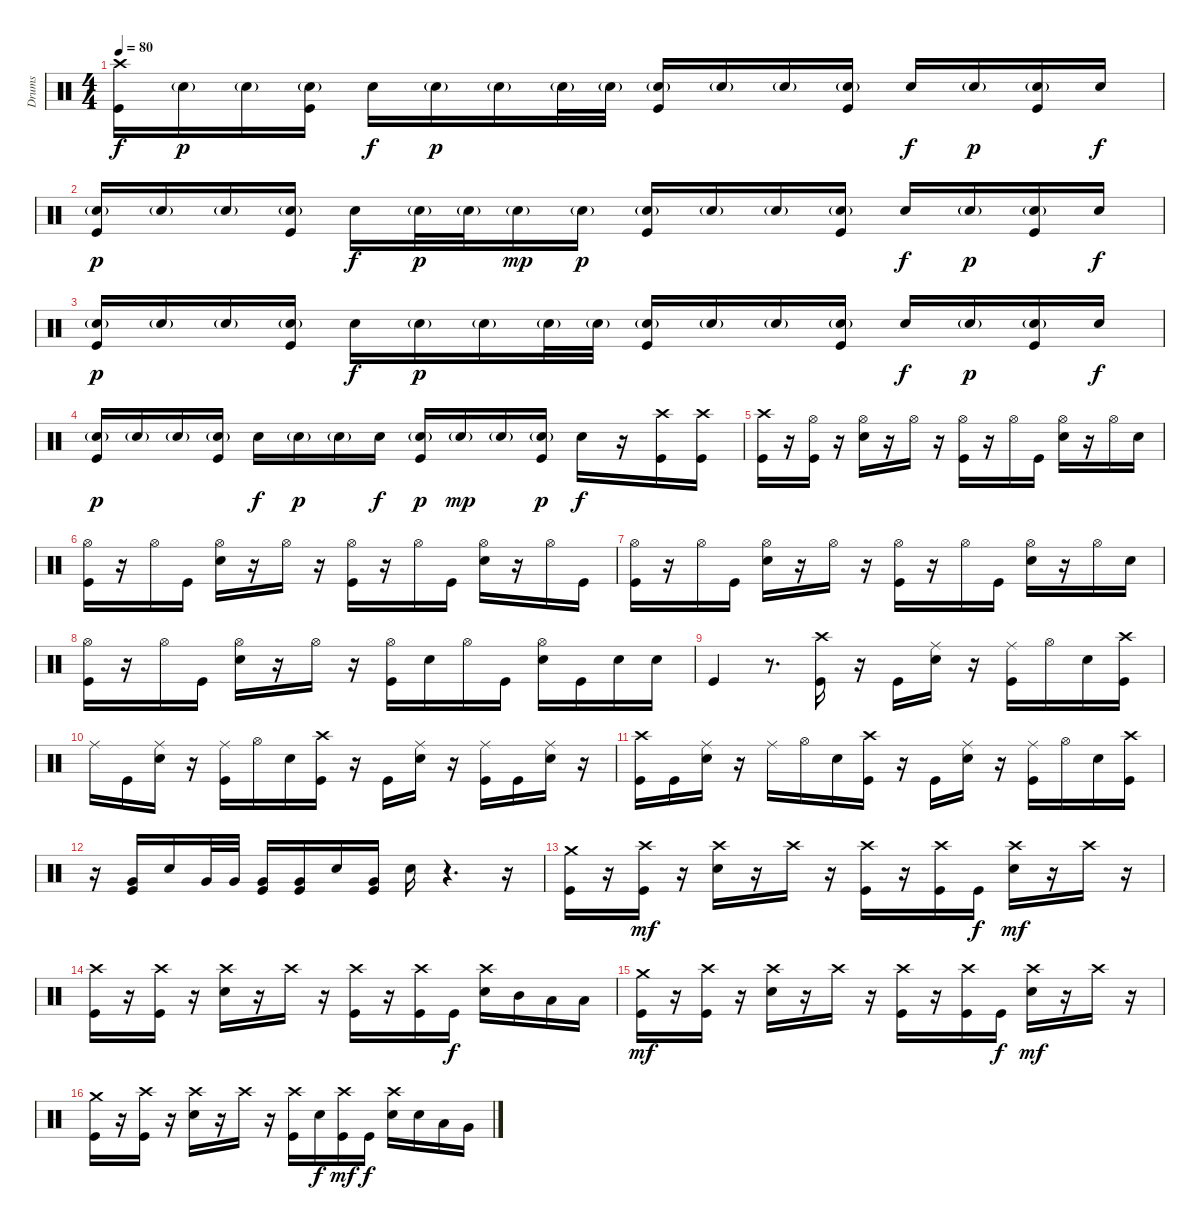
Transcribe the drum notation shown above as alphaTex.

\track ("Drums" "Drums") {instrument percussion}
\staff {score}
\articulation defaults
\ts (4 4)
\tempo 80
\clef neutral
\ks c
("Crash high (hit)" "Kick (hit)").16{dy f} "Snare (hit) 2"{g}.16{dy p} "Snare (hit) 2"{g}.16 ("Snare (hit) 2"{g} "Kick (hit)").16 "Snare (hit) 2".16{dy f} "Snare (hit) 2"{g}.16{dy p} "Snare (hit) 2"{g}.16 "Snare (hit) 2"{g}.32 "Snare (hit) 2"{g}.32 ("Snare (hit) 2"{g} "Kick (hit)").16 "Snare (hit) 2"{g}.16 "Snare (hit) 2"{g}.16 ("Snare (hit) 2"{g} "Kick (hit)").16 "Snare (hit) 2".16{dy f} "Snare (hit) 2"{g}.16{dy p} ("Snare (hit) 2"{g} "Kick (hit)").16 "Snare (hit) 2".16{dy f} |
("Snare (hit) 2"{g} "Kick (hit)").16{dy p} "Snare (hit) 2"{g}.16 "Snare (hit) 2"{g}.16 ("Snare (hit) 2"{g} "Kick (hit)").16 "Snare (hit) 2".16{dy f} "Snare (hit) 2"{g}.32{dy p} "Snare (hit) 2"{g}.32 "Snare (hit) 2"{g}.16{dy mp} "Snare (hit) 2"{g}.16{dy p} ("Snare (hit) 2"{g} "Kick (hit)").16 "Snare (hit) 2"{g}.16 "Snare (hit) 2"{g}.16 ("Snare (hit) 2"{g} "Kick (hit)").16 "Snare (hit) 2".16{dy f} "Snare (hit) 2"{g}.16{dy p} ("Snare (hit) 2"{g} "Kick (hit)").16 "Snare (hit) 2".16{dy f} |
("Snare (hit) 2"{g} "Kick (hit)").16{dy p} "Snare (hit) 2"{g}.16 "Snare (hit) 2"{g}.16 ("Snare (hit) 2"{g} "Kick (hit)").16 "Snare (hit) 2".16{dy f} "Snare (hit) 2"{g}.16{dy p} "Snare (hit) 2"{g}.16 "Snare (hit) 2"{g}.32 "Snare (hit) 2"{g}.32 ("Snare (hit) 2"{g} "Kick (hit)").16 "Snare (hit) 2"{g}.16 "Snare (hit) 2"{g}.16 ("Snare (hit) 2"{g} "Kick (hit)").16 "Snare (hit) 2".16{dy f} "Snare (hit) 2"{g}.16{dy p} ("Snare (hit) 2"{g} "Kick (hit)").16 "Snare (hit) 2".16{dy f} |
("Snare (hit) 2"{g} "Kick (hit)").16{dy p} "Snare (hit) 2"{g}.16 "Snare (hit) 2"{g}.16 ("Snare (hit) 2"{g} "Kick (hit)").16 "Snare (hit) 2".16{dy f} "Snare (hit) 2"{g}.16{dy p} "Snare (hit) 2"{g}.16 "Snare (hit) 2".16{dy f} ("Snare (hit) 2"{g} "Kick (hit)").16{dy p} "Snare (hit) 2"{g}.16{dy mp} "Snare (hit) 2"{g}.16 ("Snare (hit) 2"{g} "Kick (hit)").16{dy p} "Snare (hit) 2".16{dy f} r.16 ("Crash high (hit)" "Kick (hit)").16 ("Crash high (hit)" "Kick (hit)").16 |
("Crash high (hit)" "Kick (hit)").16 r.16 ("Hi-Hat (open)" "Kick (hit)").16 r.16 ("Hi-Hat (open)" "Snare (hit) 2").16 r.16 "Hi-Hat (open)".16 r.16 ("Hi-Hat (open)" "Kick (hit)").16 r.16 "Hi-Hat (open)".16 "Kick (hit)".16 ("Hi-Hat (open)" "Snare (hit) 2").16 r.16 "Hi-Hat (open)".16 "Snare (hit) 2".16 |
("Hi-Hat (open)" "Kick (hit)").16 r.16 "Hi-Hat (open)".16 "Kick (hit)".16 ("Hi-Hat (open)" "Snare (hit) 2").16 r.16 "Hi-Hat (open)".16 r.16 ("Hi-Hat (open)" "Kick (hit)").16 r.16 "Hi-Hat (open)".16 "Kick (hit)".16 ("Hi-Hat (open)" "Snare (hit) 2").16 r.16 "Hi-Hat (open)".16 "Kick (hit)".16 |
("Hi-Hat (open)" "Kick (hit)").16 r.16 "Hi-Hat (open)".16 "Kick (hit)".16 ("Hi-Hat (open)" "Snare (hit) 2").16 r.16 "Hi-Hat (open)".16 r.16 ("Hi-Hat (open)" "Kick (hit)").16 r.16 "Hi-Hat (open)".16 "Kick (hit)".16 ("Hi-Hat (open)" "Snare (hit) 2").16 r.16 "Hi-Hat (open)".16 "Snare (hit) 2".16 |
("Hi-Hat (open)" "Kick (hit)").16 r.16 "Hi-Hat (open)".16 "Kick (hit)".16 ("Hi-Hat (open)" "Snare (hit) 2").16 r.16 "Hi-Hat (open)".16 r.16 ("Hi-Hat (open)" "Kick (hit)").16 "Snare (hit) 2".16 "Hi-Hat (open)".16 "Kick (hit)".16 ("Hi-Hat (open)" "Snare (hit) 2").16 "Kick (hit)".16 "Snare (hit) 2".16 "Snare (hit) 2".16 |
"Kick (hit)".4 r.8{d} ("Crash high (hit)" "Kick (hit)").16{volume 13} r.16 "Kick (hit)".16 ("Ride (middle)" "Snare (hit) 2").16 r.16 ("Ride (middle)" "Kick (hit)").16 "Hi-Hat (open)".16 "Snare (hit) 2".16 ("Crash high (hit)" "Kick (hit)").16 |
"Ride (middle)".16 "Kick (hit)".16 ("Ride (middle)" "Snare (hit) 2").16 r.16 ("Ride (middle)" "Kick (hit)").16 "Hi-Hat (open)".16 "Snare (hit) 2".16 ("Crash high (hit)" "Kick (hit)").16 r.16 "Kick (hit)".16 ("Ride (middle)" "Snare (hit) 2").16 r.16 ("Ride (middle)" "Kick (hit)").16 "Kick (hit)".16 ("Ride (middle)" "Snare (hit) 2").16 r.16 |
("Crash high (hit)" "Kick (hit)").16 "Kick (hit)".16 ("Ride (middle)" "Snare (hit) 2").16 r.16 "Ride (middle)".16 "Hi-Hat (open)".16 "Snare (hit) 2".16 ("Crash high (hit)" "Kick (hit)").16 r.16 "Kick (hit)".16 ("Ride (middle)" "Snare (hit) 2").16 r.16 ("Ride (middle)" "Kick (hit)").16 "Hi-Hat (open)".16 "Snare (hit) 2".16 ("Crash high (hit)" "Kick (hit)").16 |
r.16 ("Very Low Tom (hit)" "Kick (hit)").16 "Snare (hit) 2".16 "Very Low Tom (hit)".32 "Very Low Tom (hit)".32 ("Very Low Tom (hit)" "Kick (hit)").16 ("Very Low Tom (hit)" "Kick (hit)").16 "Snare (hit) 2".16 ("Very Low Tom (hit)" "Kick (hit)").16 "Snare (hit) 2".16 r.4{d} r.16 |
("Crash medium (hit)" "Kick (hit)").16 r.16 ("Crash high (hit)" "Kick (hit)").16{dy mf} r.16 ("Crash high (hit)" "Snare (hit) 2").16 r.16 "Crash high (hit)".16 r.16 ("Crash high (hit)" "Kick (hit)").16 r.16 ("Crash high (hit)" "Kick (hit)").16 "Kick (hit)".16{dy f} ("Crash high (hit)" "Snare (hit) 2").16{dy mf} r.16 "Crash high (hit)".16 r.16 |
("Crash high (hit)" "Kick (hit)").16 r.16 ("Crash high (hit)" "Kick (hit)").16 r.16 ("Crash high (hit)" "Snare (hit) 2").16 r.16 "Crash high (hit)".16 r.16 ("Crash high (hit)" "Kick (hit)").16 r.16 ("Crash high (hit)" "Kick (hit)").16 "Kick (hit)".16{dy f} ("Crash high (hit)" "Snare (hit) 2").16 "Mid Tom (hit)".16 "Low Tom (hit)".16 "Low Tom (hit)".16 |
("Crash medium (hit)" "Kick (hit)").16{dy mf} r.16 ("Crash high (hit)" "Kick (hit)").16 r.16 ("Crash high (hit)" "Snare (hit) 2").16 r.16 "Crash high (hit)".16 r.16 ("Crash high (hit)" "Kick (hit)").16 r.16 ("Crash high (hit)" "Kick (hit)").16 "Kick (hit)".16{dy f} ("Crash high (hit)" "Snare (hit) 2").16{dy mf} r.16 "Crash high (hit)".16 r.16 |
("Crash medium (hit)" "Kick (hit)").16 r.16 ("Crash high (hit)" "Kick (hit)").16 r.16 ("Crash high (hit)" "Snare (hit) 2").16 r.16 "Crash high (hit)".16 r.16 ("Crash high (hit)" "Kick (hit)").16 "Snare (hit) 2".16{dy f} ("Crash high (hit)" "Kick (hit)").16{dy mf} "Kick (hit)".16{dy f} ("Crash high (hit)" "Snare (hit) 2").16 "Snare (hit) 2".16 "Low Tom (hit)".16 "Very Low Tom (hit)".16
